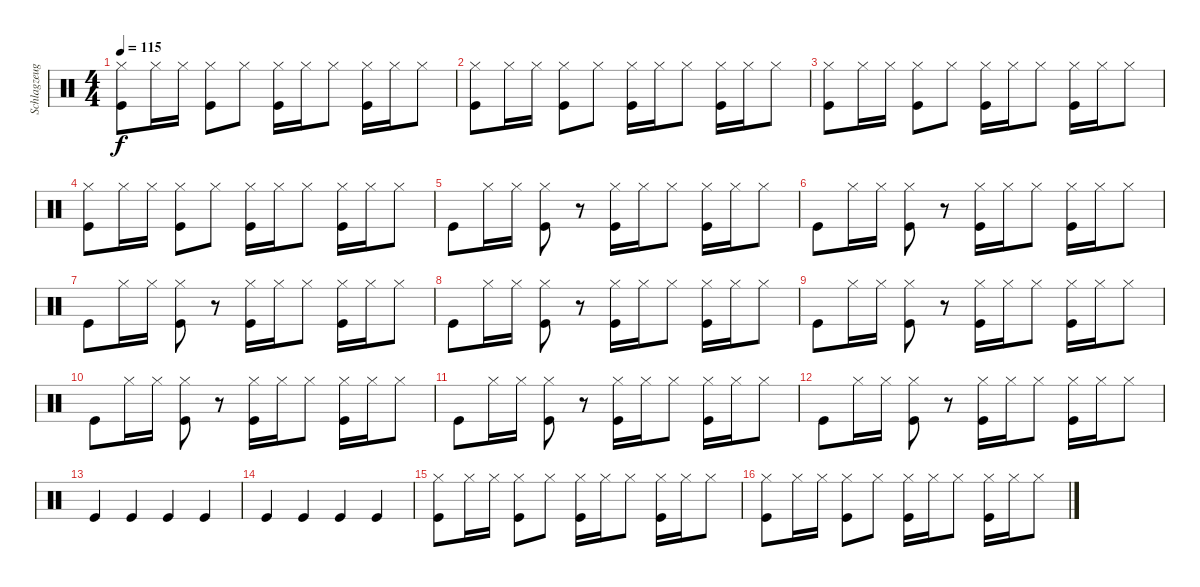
\track ("Schlagzeug" "Schlagzeug") {instrument percussion}
\staff {score}
\articulation defaults
\ts (4 4)
\tempo 115
\clef neutral
\ks c
("Kick (hit)" "Hi-Hat (closed)").8{dy f} "Hi-Hat (closed)".16 "Hi-Hat (closed)".16 ("Kick (hit)" "Hi-Hat (closed)").8 "Hi-Hat (closed)".8 ("Kick (hit)" "Hi-Hat (closed)").16 "Hi-Hat (closed)".16 "Hi-Hat (closed)".8 ("Kick (hit)" "Hi-Hat (closed)").16 "Hi-Hat (closed)".16 "Hi-Hat (closed)".8 |
("Kick (hit)" "Hi-Hat (closed)").8 "Hi-Hat (closed)".16 "Hi-Hat (closed)".16 ("Kick (hit)" "Hi-Hat (closed)").8 "Hi-Hat (closed)".8 ("Kick (hit)" "Hi-Hat (closed)").16 "Hi-Hat (closed)".16 "Hi-Hat (closed)".8 ("Kick (hit)" "Hi-Hat (closed)").16 "Hi-Hat (closed)".16 "Hi-Hat (closed)".8 |
("Kick (hit)" "Hi-Hat (closed)").8 "Hi-Hat (closed)".16 "Hi-Hat (closed)".16 ("Kick (hit)" "Hi-Hat (closed)").8 "Hi-Hat (closed)".8 ("Kick (hit)" "Hi-Hat (closed)").16 "Hi-Hat (closed)".16 "Hi-Hat (closed)".8 ("Kick (hit)" "Hi-Hat (closed)").16 "Hi-Hat (closed)".16 "Hi-Hat (closed)".8 |
("Kick (hit)" "Hi-Hat (closed)").8 "Hi-Hat (closed)".16 "Hi-Hat (closed)".16 ("Kick (hit)" "Hi-Hat (closed)").8 "Hi-Hat (closed)".8 ("Kick (hit)" "Hi-Hat (closed)").16 "Hi-Hat (closed)".16 "Hi-Hat (closed)".8 ("Kick (hit)" "Hi-Hat (closed)").16 "Hi-Hat (closed)".16 "Hi-Hat (closed)".8 |
"Kick (hit)".8 "Hi-Hat (closed)".16 "Hi-Hat (closed)".16 ("Kick (hit)" "Hi-Hat (closed)").8 r.8 ("Kick (hit)" "Hi-Hat (closed)").16 "Hi-Hat (closed)".16 "Hi-Hat (closed)".8 ("Kick (hit)" "Hi-Hat (closed)").16 "Hi-Hat (closed)".16 "Hi-Hat (closed)".8 |
"Kick (hit)".8 "Hi-Hat (closed)".16 "Hi-Hat (closed)".16 ("Kick (hit)" "Hi-Hat (closed)").8 r.8 ("Kick (hit)" "Hi-Hat (closed)").16 "Hi-Hat (closed)".16 "Hi-Hat (closed)".8 ("Kick (hit)" "Hi-Hat (closed)").16 "Hi-Hat (closed)".16 "Hi-Hat (closed)".8 |
"Kick (hit)".8 "Hi-Hat (closed)".16 "Hi-Hat (closed)".16 ("Kick (hit)" "Hi-Hat (closed)").8 r.8 ("Kick (hit)" "Hi-Hat (closed)").16 "Hi-Hat (closed)".16 "Hi-Hat (closed)".8 ("Kick (hit)" "Hi-Hat (closed)").16 "Hi-Hat (closed)".16 "Hi-Hat (closed)".8 |
"Kick (hit)".8 "Hi-Hat (closed)".16 "Hi-Hat (closed)".16 ("Kick (hit)" "Hi-Hat (closed)").8 r.8 ("Kick (hit)" "Hi-Hat (closed)").16 "Hi-Hat (closed)".16 "Hi-Hat (closed)".8 ("Kick (hit)" "Hi-Hat (closed)").16 "Hi-Hat (closed)".16 "Hi-Hat (closed)".8 |
"Kick (hit)".8 "Hi-Hat (closed)".16 "Hi-Hat (closed)".16 ("Kick (hit)" "Hi-Hat (closed)").8 r.8 ("Kick (hit)" "Hi-Hat (closed)").16 "Hi-Hat (closed)".16 "Hi-Hat (closed)".8 ("Kick (hit)" "Hi-Hat (closed)").16 "Hi-Hat (closed)".16 "Hi-Hat (closed)".8 |
"Kick (hit)".8 "Hi-Hat (closed)".16 "Hi-Hat (closed)".16 ("Kick (hit)" "Hi-Hat (closed)").8 r.8 ("Kick (hit)" "Hi-Hat (closed)").16 "Hi-Hat (closed)".16 "Hi-Hat (closed)".8 ("Kick (hit)" "Hi-Hat (closed)").16 "Hi-Hat (closed)".16 "Hi-Hat (closed)".8 |
"Kick (hit)".8 "Hi-Hat (closed)".16 "Hi-Hat (closed)".16 ("Kick (hit)" "Hi-Hat (closed)").8 r.8 ("Kick (hit)" "Hi-Hat (closed)").16 "Hi-Hat (closed)".16 "Hi-Hat (closed)".8 ("Kick (hit)" "Hi-Hat (closed)").16 "Hi-Hat (closed)".16 "Hi-Hat (closed)".8 |
"Kick (hit)".8 "Hi-Hat (closed)".16 "Hi-Hat (closed)".16 ("Kick (hit)" "Hi-Hat (closed)").8 r.8 ("Kick (hit)" "Hi-Hat (closed)").16 "Hi-Hat (closed)".16 "Hi-Hat (closed)".8 ("Kick (hit)" "Hi-Hat (closed)").16 "Hi-Hat (closed)".16 "Hi-Hat (closed)".8 |
"Kick (hit)".4 "Kick (hit)".4 "Kick (hit)".4 "Kick (hit)".4 |
"Kick (hit)".4 "Kick (hit)".4 "Kick (hit)".4 "Kick (hit)".4 |
("Kick (hit)" "Hi-Hat (closed)").8 "Hi-Hat (closed)".16 "Hi-Hat (closed)".16 ("Kick (hit)" "Hi-Hat (closed)").8 "Hi-Hat (closed)".8 ("Kick (hit)" "Hi-Hat (closed)").16 "Hi-Hat (closed)".16 "Hi-Hat (closed)".8 ("Kick (hit)" "Hi-Hat (closed)").16 "Hi-Hat (closed)".16 "Hi-Hat (closed)".8 |
("Kick (hit)" "Hi-Hat (closed)").8 "Hi-Hat (closed)".16 "Hi-Hat (closed)".16 ("Kick (hit)" "Hi-Hat (closed)").8 "Hi-Hat (closed)".8 ("Kick (hit)" "Hi-Hat (closed)").16 "Hi-Hat (closed)".16 "Hi-Hat (closed)".8 ("Kick (hit)" "Hi-Hat (closed)").16 "Hi-Hat (closed)".16 "Hi-Hat (closed)".8
